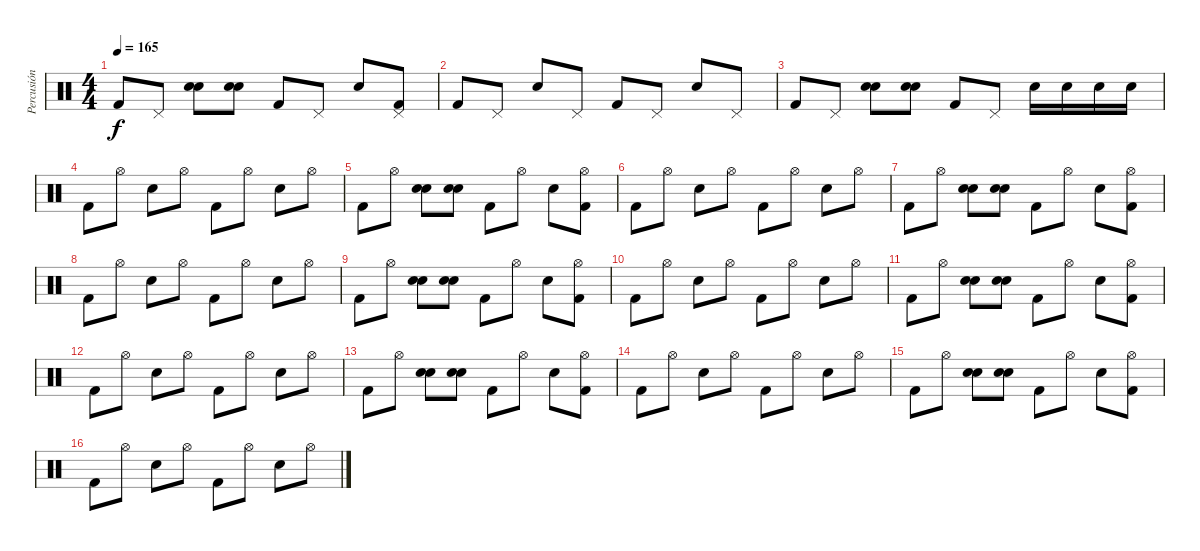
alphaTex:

\track ("Percusión" "Percusión") {instrument percussion}
\staff {score}
\articulation defaults
\ts (4 4)
\tempo 165
\clef neutral
\ks c "Kick (hit) 2".8{dy f} "Pedal Hi-Hat (hit)".8
("Snare (hit) 2" "Snare (hit) 2").8 ("Snare (hit) 2" "Snare (hit) 2").8 "Kick (hit) 2".8 "Pedal Hi-Hat (hit)".8 "Snare (hit) 2".8 ("Kick (hit) 2" "Pedal Hi-Hat (hit)").8 |
"Kick (hit) 2".8 "Pedal Hi-Hat (hit)".8 "Snare (hit) 2".8 "Pedal Hi-Hat (hit)".8 "Kick (hit) 2".8 "Pedal Hi-Hat (hit)".8 "Snare (hit) 2".8 "Pedal Hi-Hat (hit)".8 |
"Kick (hit) 2".8 "Pedal Hi-Hat (hit)".8 ("Snare (hit) 2" "Snare (hit) 2").8 ("Snare (hit) 2" "Snare (hit) 2").8 "Kick (hit) 2".8 "Pedal Hi-Hat (hit)".8 "Snare (hit) 2".16 "Snare (hit) 2".16 "Snare (hit) 2".16 "Snare (hit) 2".16 |
"Kick (hit) 2".8 "Hi-Hat (open)".8 "Snare (hit) 2".8 "Hi-Hat (open)".8 "Kick (hit) 2".8 "Hi-Hat (open)".8 "Snare (hit) 2".8 "Hi-Hat (open)".8 |
"Kick (hit) 2".8 "Hi-Hat (open)".8 ("Snare (hit) 2" "Snare (hit) 2").8 ("Snare (hit) 2" "Snare (hit) 2").8 "Kick (hit) 2".8 "Hi-Hat (open)".8 "Snare (hit) 2".8 ("Kick (hit) 2" "Hi-Hat (open)").8 |
"Kick (hit) 2".8 "Hi-Hat (open)".8 "Snare (hit) 2".8 "Hi-Hat (open)".8 "Kick (hit) 2".8 "Hi-Hat (open)".8 "Snare (hit) 2".8 "Hi-Hat (open)".8 |
"Kick (hit) 2".8 "Hi-Hat (open)".8 ("Snare (hit) 2" "Snare (hit) 2").8 ("Snare (hit) 2" "Snare (hit) 2").8 "Kick (hit) 2".8 "Hi-Hat (open)".8 "Snare (hit) 2".8 ("Kick (hit) 2" "Hi-Hat (open)").8 |
"Kick (hit) 2".8 "Hi-Hat (open)".8 "Snare (hit) 2".8 "Hi-Hat (open)".8 "Kick (hit) 2".8 "Hi-Hat (open)".8 "Snare (hit) 2".8 "Hi-Hat (open)".8 |
"Kick (hit) 2".8 "Hi-Hat (open)".8 ("Snare (hit) 2" "Snare (hit) 2").8 ("Snare (hit) 2" "Snare (hit) 2").8 "Kick (hit) 2".8 "Hi-Hat (open)".8 "Snare (hit) 2".8 ("Kick (hit) 2" "Hi-Hat (open)").8 |
"Kick (hit) 2".8 "Hi-Hat (open)".8 "Snare (hit) 2".8 "Hi-Hat (open)".8 "Kick (hit) 2".8 "Hi-Hat (open)".8 "Snare (hit) 2".8 "Hi-Hat (open)".8 |
"Kick (hit) 2".8 "Hi-Hat (open)".8 ("Snare (hit) 2" "Snare (hit) 2").8 ("Snare (hit) 2" "Snare (hit) 2").8 "Kick (hit) 2".8 "Hi-Hat (open)".8 "Snare (hit) 2".8 ("Kick (hit) 2" "Hi-Hat (open)").8 |
"Kick (hit) 2".8 "Hi-Hat (open)".8 "Snare (hit) 2".8 "Hi-Hat (open)".8 "Kick (hit) 2".8 "Hi-Hat (open)".8 "Snare (hit) 2".8 "Hi-Hat (open)".8 |
"Kick (hit) 2".8 "Hi-Hat (open)".8 ("Snare (hit) 2" "Snare (hit) 2").8 ("Snare (hit) 2" "Snare (hit) 2").8 "Kick (hit) 2".8 "Hi-Hat (open)".8 "Snare (hit) 2".8 ("Kick (hit) 2" "Hi-Hat (open)").8 |
"Kick (hit) 2".8 "Hi-Hat (open)".8 "Snare (hit) 2".8 "Hi-Hat (open)".8 "Kick (hit) 2".8 "Hi-Hat (open)".8 "Snare (hit) 2".8 "Hi-Hat (open)".8 |
"Kick (hit) 2".8 "Hi-Hat (open)".8 ("Snare (hit) 2" "Snare (hit) 2").8 ("Snare (hit) 2" "Snare (hit) 2").8 "Kick (hit) 2".8 "Hi-Hat (open)".8 "Snare (hit) 2".8 ("Kick (hit) 2" "Hi-Hat (open)").8 |
"Kick (hit) 2".8 "Hi-Hat (open)".8 "Snare (hit) 2".8 "Hi-Hat (open)".8 "Kick (hit) 2".8 "Hi-Hat (open)".8 "Snare (hit) 2".8 "Hi-Hat (open)".8
